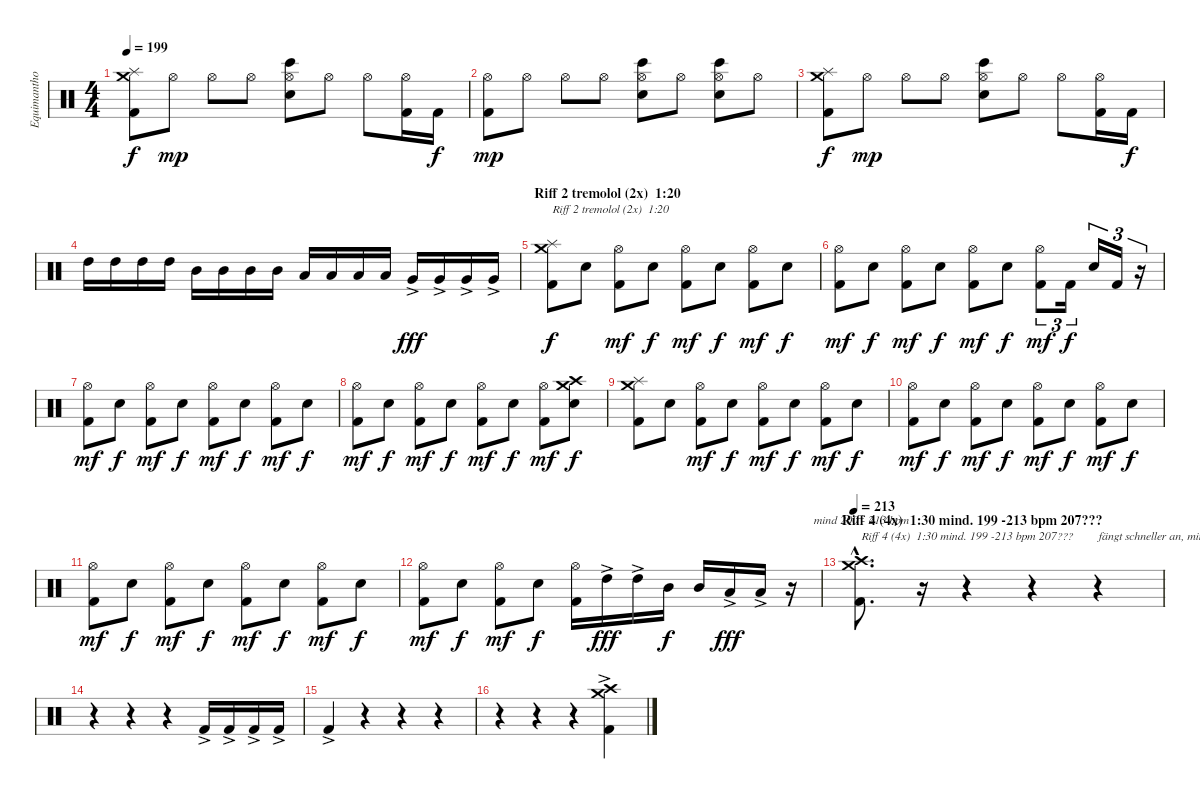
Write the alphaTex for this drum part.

\track ("Equimanthorn" "Equimantho") {instrument percussion}
\staff {score}
\articulation defaults
\chord ("mind 200 - 213 bpm")
\ts (4 4)
\tempo 199
\clef neutral
\ks c
("Kick (hit) 2" "Splash (hit)" "Crash medium (hit)").8{dy f} "Hi-Hat (open)".8{dy mp} "Hi-Hat (open)".8 "Hi-Hat (open)".8 ("Bongo High (hit)" "Electric Snare (hit)" "Hi-Hat (open)").8 "Hi-Hat (open)".8 "Hi-Hat (open)".8 ("Kick (hit) 2" "Hi-Hat (open)").16 "Kick (hit) 2".16{dy f} |
("Kick (hit) 2" "Hi-Hat (open)").8{dy mp} "Hi-Hat (open)".8 "Hi-Hat (open)".8 "Hi-Hat (open)".8 ("Bongo High (hit)" "Electric Snare (hit)" "Hi-Hat (open)").8 "Hi-Hat (open)".8 ("Bongo High (hit)" "Electric Snare (hit)" "Hi-Hat (open)").8 "Hi-Hat (open)".8 |
("Kick (hit) 2" "Splash (hit)" "Crash medium (hit)").8{dy f} "Hi-Hat (open)".8{dy mp} "Hi-Hat (open)".8 "Hi-Hat (open)".8 ("Bongo High (hit)" "Electric Snare (hit)" "Hi-Hat (open)").8 "Hi-Hat (open)".8 "Hi-Hat (open)".8 ("Kick (hit) 2" "Hi-Hat (open)").16 "Kick (hit) 2".16{dy f} |
"High Tom (hit)".16 "High Tom (hit)".16 "High Tom (hit)".16 "High Tom (hit)".16 "Mid Tom (hit)".16 "Mid Tom (hit)".16 "Mid Tom (hit)".16 "Mid Tom (hit)".16 "Low Tom (hit)".16 "Low Tom (hit)".16 "Low Tom (hit)".16 "Low Tom (hit)".16 "Very Low Tom (hit)"{ac}.16{dy fff} "Very Low Tom (hit)"{ac}.16 "Very Low Tom (hit)"{ac}.16 "Very Low Tom (hit)"{ac}.16 |
\section ("" "Riff 2 tremolol (2x)  1:20")
("Kick (hit) 2" "Splash (hit)" "Crash medium (hit)").8{txt "Riff 2 tremolol (2x)  1:20" dy f} "Electric Snare (hit)".8 ("Kick (hit) 2" "Hi-Hat (open)").8{dy mf} "Electric Snare (hit)".8{dy f} ("Kick (hit) 2" "Hi-Hat (open)").8{dy mf} "Electric Snare (hit)".8{dy f} ("Kick (hit) 2" "Hi-Hat (open)").8{dy mf} "Electric Snare (hit)".8{dy f} |
("Kick (hit) 2" "Hi-Hat (open)").8{dy mf} "Electric Snare (hit)".8{dy f} ("Kick (hit) 2" "Hi-Hat (open)").8{dy mf} "Electric Snare (hit)".8{dy f} ("Kick (hit) 2" "Hi-Hat (open)").8{dy mf} "Electric Snare (hit)".8{dy f} ("Kick (hit) 2" "Hi-Hat (open)").8{tu (3 2) dy mf} "Kick (hit) 2".16{tu (3 2) dy f} "Electric Snare (hit)".16{tu (3 2)} "Kick (hit) 2".16{tu (3 2)} r.16{tu (3 2)} |
("Kick (hit) 2" "Hi-Hat (open)").8{dy mf} "Electric Snare (hit)".8{dy f} ("Kick (hit) 2" "Hi-Hat (open)").8{dy mf} "Electric Snare (hit)".8{dy f} ("Kick (hit) 2" "Hi-Hat (open)").8{dy mf} "Electric Snare (hit)".8{dy f} ("Kick (hit) 2" "Hi-Hat (open)").8{dy mf} "Electric Snare (hit)".8{dy f} |
("Kick (hit) 2" "Hi-Hat (open)").8{dy mf} "Electric Snare (hit)".8{dy f} ("Kick (hit) 2" "Hi-Hat (open)").8{dy mf} "Electric Snare (hit)".8{dy f} ("Kick (hit) 2" "Hi-Hat (open)").8{dy mf} "Electric Snare (hit)".8{dy f} ("Kick (hit) 2" "Hi-Hat (open)").8{dy mf} ("Electric Snare (hit)" "Crash high (hit)" "Crash medium (hit)").8{dy f} |
("Kick (hit) 2" "Splash (hit)" "Crash medium (hit)").8 "Electric Snare (hit)".8 ("Kick (hit) 2" "Hi-Hat (open)").8{dy mf} "Electric Snare (hit)".8{dy f} ("Kick (hit) 2" "Hi-Hat (open)").8{dy mf} "Electric Snare (hit)".8{dy f} ("Kick (hit) 2" "Hi-Hat (open)").8{dy mf} "Electric Snare (hit)".8{dy f} |
("Kick (hit) 2" "Hi-Hat (open)").8{dy mf} "Electric Snare (hit)".8{dy f} ("Kick (hit) 2" "Hi-Hat (open)").8{dy mf} "Electric Snare (hit)".8{dy f} ("Kick (hit) 2" "Hi-Hat (open)").8{dy mf} "Electric Snare (hit)".8{dy f} ("Kick (hit) 2" "Hi-Hat (open)").8{dy mf} "Electric Snare (hit)".8{dy f} |
("Kick (hit) 2" "Hi-Hat (open)").8{dy mf} "Electric Snare (hit)".8{dy f} ("Kick (hit) 2" "Hi-Hat (open)").8{dy mf} "Electric Snare (hit)".8{dy f} ("Kick (hit) 2" "Hi-Hat (open)").8{dy mf} "Electric Snare (hit)".8{dy f} ("Kick (hit) 2" "Hi-Hat (open)").8{dy mf} "Electric Snare (hit)".8{dy f} |
("Kick (hit) 2" "Hi-Hat (open)").8{dy mf} "Electric Snare (hit)".8{dy f} ("Kick (hit) 2" "Hi-Hat (open)").8{dy mf} "Electric Snare (hit)".8{dy f} ("Kick (hit) 2" "Hi-Hat (open)").16 "High Tom (hit)"{ac}.16{dy fff} "High Tom (hit)"{ac}.16 "Mid Tom (hit)".16{dy f} "Mid Tom (hit)".16 "Low Tom (hit)"{ac}.16{dy fff} "Low Tom (hit)"{ac}.16 r.16 |
\section ("" "Riff 4 (4x)  1:30 mind. 199 -213 bpm 207???")
\tempo 213
("Kick (hit) 2"{hac} "Crash high (hit)"{hac} "Crash medium (hit)"{hac}).8{d ch "mind 200 - 213 bpm" txt "Riff 4 (4x)  1:30 mind. 199 -213 bpm 207???"} r.16{volume 0} r.4 r.4 r.4{txt "fängt schneller an, mit Drums langsamer, oder?"} |
r.4 r.4 r.4{volume 14} "Kick (hit) 2"{ac}.16 "Kick (hit) 2"{ac}.16 "Kick (hit) 2"{ac}.16 "Kick (hit) 2"{ac}.16 |
"Kick (hit) 2"{ac}.4 r.4 r.4 r.4 |
r.4 r.4 r.4 ("Kick (hit) 2"{ac} "Crash high (hit)" "Crash medium (hit)").4
